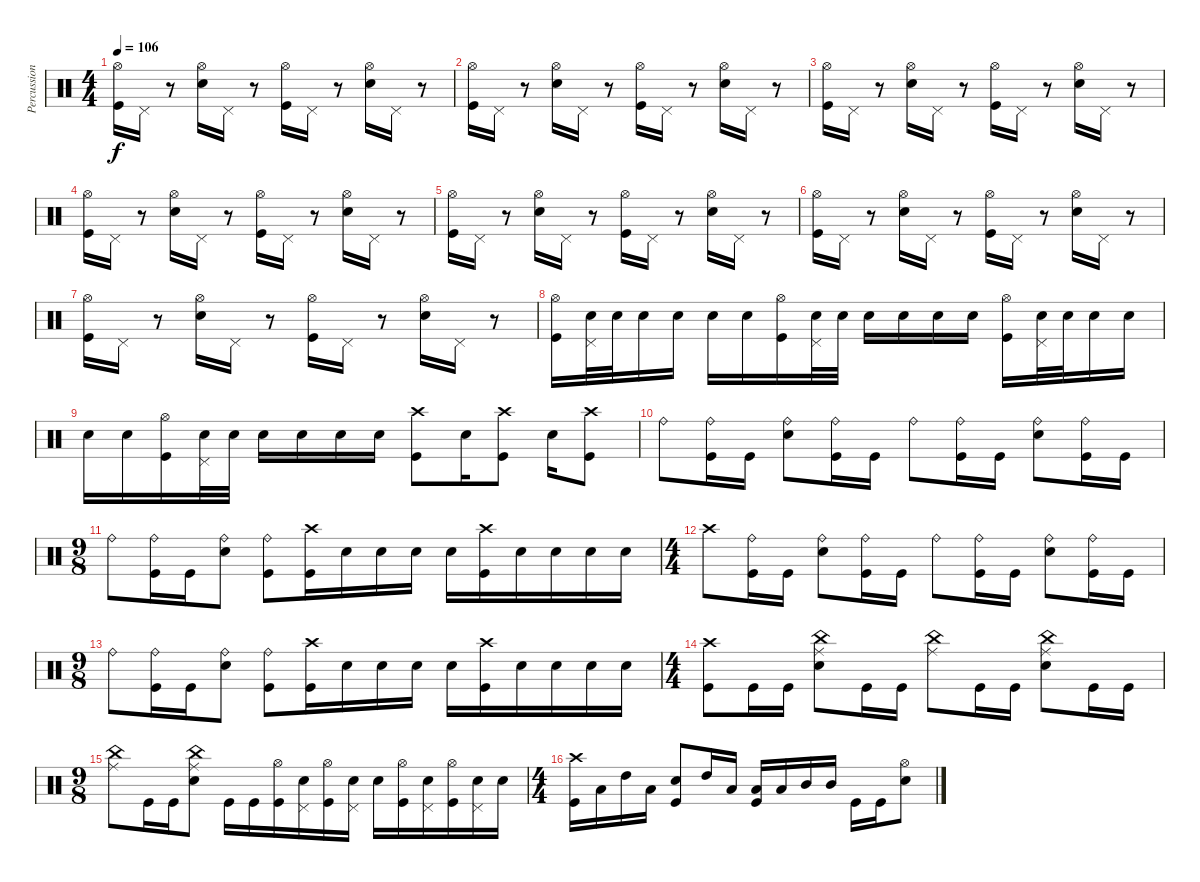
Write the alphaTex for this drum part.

\track ("Percussion" "Percussion") {instrument percussion}
\staff {score}
\articulation defaults
\ts (4 4)
\tempo 106
\clef neutral
\ks c
("Hi-Hat (open)" "Kick (hit)").16{dy f} "Pedal Hi-Hat (hit)".16 r.8 ("Hi-Hat (open)" "Snare (hit) 2").16 "Pedal Hi-Hat (hit)".16 r.8 ("Hi-Hat (open)" "Kick (hit)").16 "Pedal Hi-Hat (hit)".16 r.8 ("Hi-Hat (open)" "Snare (hit) 2").16 "Pedal Hi-Hat (hit)".16 r.8 |
("Hi-Hat (open)" "Kick (hit)").16 "Pedal Hi-Hat (hit)".16 r.8 ("Hi-Hat (open)" "Snare (hit) 2").16 "Pedal Hi-Hat (hit)".16 r.8 ("Hi-Hat (open)" "Kick (hit)").16 "Pedal Hi-Hat (hit)".16 r.8 ("Hi-Hat (open)" "Snare (hit) 2").16 "Pedal Hi-Hat (hit)".16 r.8 |
("Hi-Hat (open)" "Kick (hit)").16 "Pedal Hi-Hat (hit)".16 r.8 ("Hi-Hat (open)" "Snare (hit) 2").16 "Pedal Hi-Hat (hit)".16 r.8 ("Hi-Hat (open)" "Kick (hit)").16 "Pedal Hi-Hat (hit)".16 r.8 ("Hi-Hat (open)" "Snare (hit) 2").16 "Pedal Hi-Hat (hit)".16 r.8 |
("Hi-Hat (open)" "Kick (hit)").16 "Pedal Hi-Hat (hit)".16 r.8 ("Hi-Hat (open)" "Snare (hit) 2").16 "Pedal Hi-Hat (hit)".16 r.8 ("Hi-Hat (open)" "Kick (hit)").16 "Pedal Hi-Hat (hit)".16 r.8 ("Hi-Hat (open)" "Snare (hit) 2").16 "Pedal Hi-Hat (hit)".16 r.8 |
("Hi-Hat (open)" "Kick (hit)").16 "Pedal Hi-Hat (hit)".16 r.8 ("Hi-Hat (open)" "Snare (hit) 2").16 "Pedal Hi-Hat (hit)".16 r.8 ("Hi-Hat (open)" "Kick (hit)").16 "Pedal Hi-Hat (hit)".16 r.8 ("Hi-Hat (open)" "Snare (hit) 2").16 "Pedal Hi-Hat (hit)".16 r.8 |
("Hi-Hat (open)" "Kick (hit)").16 "Pedal Hi-Hat (hit)".16 r.8 ("Hi-Hat (open)" "Snare (hit) 2").16 "Pedal Hi-Hat (hit)".16 r.8 ("Hi-Hat (open)" "Kick (hit)").16 "Pedal Hi-Hat (hit)".16 r.8 ("Hi-Hat (open)" "Snare (hit) 2").16 "Pedal Hi-Hat (hit)".16 r.8 |
("Hi-Hat (open)" "Kick (hit)").16 "Pedal Hi-Hat (hit)".16 r.8 ("Hi-Hat (open)" "Snare (hit) 2").16 "Pedal Hi-Hat (hit)".16 r.8 ("Hi-Hat (open)" "Kick (hit)").16 "Pedal Hi-Hat (hit)".16 r.8 ("Hi-Hat (open)" "Snare (hit) 2").16 "Pedal Hi-Hat (hit)".16 r.8 |
("Kick (hit)" "Hi-Hat (open)").16 ("Snare (hit) 2" "Pedal Hi-Hat (hit)").32 "Snare (hit) 2".32 "Snare (hit) 2".16 "Snare (hit) 2".16 "Snare (hit) 2".16 "Snare (hit) 2".16 ("Hi-Hat (open)" "Kick (hit)").16 ("Snare (hit) 2" "Pedal Hi-Hat (hit)").32 "Snare (hit) 2".32 "Snare (hit) 2".16 "Snare (hit) 2".16 "Snare (hit) 2".16 "Snare (hit) 2".16 ("Kick (hit)" "Hi-Hat (open)").16 ("Snare (hit) 2" "Pedal Hi-Hat (hit)").32 "Snare (hit) 2".32 "Snare (hit) 2".16 "Snare (hit) 2".16 |
"Snare (hit) 2".16 "Snare (hit) 2".16 ("Hi-Hat (open)" "Kick (hit)").16 ("Snare (hit) 2" "Pedal Hi-Hat (hit)").32 "Snare (hit) 2".32 "Snare (hit) 2".16 "Snare (hit) 2".16 "Snare (hit) 2".16 "Snare (hit) 2".16 ("Kick (hit)" "Crash high (hit)").8 "Electric Snare (hit)".16 ("Kick (hit)" "Crash high (hit)").8 "Electric Snare (hit)".16 ("Kick (hit)" "Crash high (hit)").8 |
"Ride (bell)".8 ("Ride (bell)" "Kick (hit)").16 "Kick (hit)".16 ("Ride (bell)" "Snare (hit) 2").8 ("Ride (bell)" "Kick (hit)").16 "Kick (hit)".16 "Ride (bell)".8 ("Ride (bell)" "Kick (hit)").16 "Kick (hit)".16 ("Ride (bell)" "Snare (hit) 2").8 ("Ride (bell)" "Kick (hit)").16 "Kick (hit)".16 |
\ts (9 8)
"Ride (bell)".8 ("Ride (bell)" "Kick (hit)").16 "Kick (hit)".16 ("Ride (bell)" "Snare (hit) 2").8 ("Ride (bell)" "Kick (hit)").8 ("Kick (hit)" "Crash high (hit)").16 "Snare (hit) 2".16 "Snare (hit) 2".16 "Snare (hit) 2".16 "Snare (hit) 2".16 ("Kick (hit)" "Crash high (hit)").16 "Snare (hit) 2".16 "Snare (hit) 2".16 "Snare (hit) 2".16 "Snare (hit) 2".16 |
\ts (4 4)
"Crash high (hit)".8 ("Ride (bell)" "Kick (hit)").16 "Kick (hit)".16 ("Ride (bell)" "Snare (hit) 2").8 ("Ride (bell)" "Kick (hit)").16 "Kick (hit)".16 "Ride (bell)".8 ("Ride (bell)" "Kick (hit)").16 "Kick (hit)".16 ("Ride (bell)" "Snare (hit) 2").8 ("Ride (bell)" "Kick (hit)").16 "Kick (hit)".16 |
\ts (9 8)
"Ride (bell)".8 ("Ride (bell)" "Kick (hit)").16 "Kick (hit)".16 ("Ride (bell)" "Snare (hit) 2").8 ("Ride (bell)" "Kick (hit)").8 ("Kick (hit)" "Crash high (hit)").16 "Snare (hit) 2".16 "Snare (hit) 2".16 "Snare (hit) 2".16 "Snare (hit) 2".16 ("Kick (hit)" "Crash high (hit)").16 "Snare (hit) 2".16 "Snare (hit) 2".16 "Snare (hit) 2".16 "Snare (hit) 2".16 |
\ts (4 4)
("Crash high (hit)" "Kick (hit)").8 "Kick (hit)".16 "Kick (hit)".16 ("Ride (middle)" "China (hit)" "Snare (hit) 2").8 "Kick (hit)".16 "Kick (hit)".16 ("Ride (middle)" "China (hit)").8 "Kick (hit)".16 "Kick (hit)".16 ("Ride (middle)" "China (hit)" "Snare (hit) 2").8 "Kick (hit)".16 "Kick (hit)".16 |
\ts (9 8)
("Ride (middle)" "China (hit)").8 "Kick (hit)".16 "Kick (hit)".16 ("Ride (middle)" "China (hit)" "Snare (hit) 2").8 "Kick (hit)".16 "Kick (hit)".16 ("Kick (hit)" "Hi-Hat (open)").16 ("Electric Snare (hit)" "Pedal Hi-Hat (hit)").16 ("Kick (hit)" "Hi-Hat (open)").16 ("Electric Snare (hit)" "Pedal Hi-Hat (hit)").16 "Electric Snare (hit)".16 ("Kick (hit)" "Hi-Hat (open)").16 ("Electric Snare (hit)" "Pedal Hi-Hat (hit)").16 ("Kick (hit)" "Hi-Hat (open)").16 ("Electric Snare (hit)" "Pedal Hi-Hat (hit)").16 "Electric Snare (hit)".16 |
\ts (4 4)
("Kick (hit)" "Crash high (hit)").16 "Low Tom (hit)".16 "High Tom (hit)".16 "Low Tom (hit)".16 ("Snare (hit) 2" "Kick (hit)").8 "High Tom (hit)".16 "Low Tom (hit)".16 ("Kick (hit)" "Low Tom (hit)").16 "Low Tom (hit)".16 "Mid Tom (hit)".16 "Mid Tom (hit)".16 "Kick (hit)".16 "Kick (hit)".16 ("Snare (hit) 2" "Hi-Hat (open)").8
